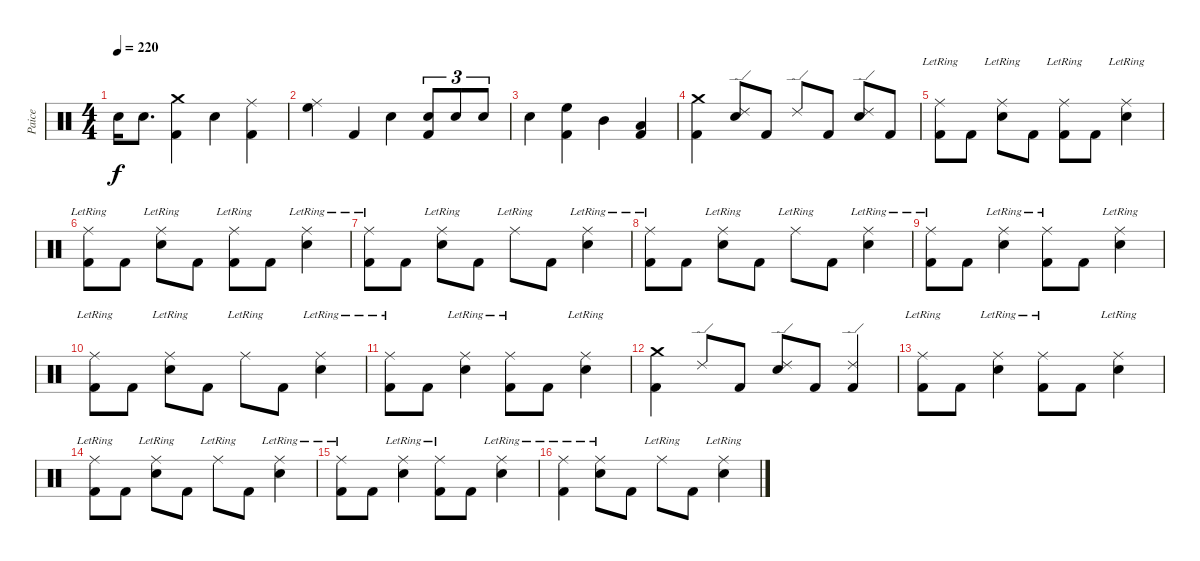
\track ("Paice" "Paice") {instrument percussion}
\staff {score}
\articulation defaults
\ts (4 4)
\tempo 220
\clef neutral
\ks c "Snare (hit) 2".16{dy f} "Snare (hit) 2".8{d}
("Crash medium (hit)" "Kick (hit) 2").4 "Snare (hit) 2".4 ("Ride (middle)" "Kick (hit) 2").4 |
("Ride (middle)" "High Floor Tom (hit)").4 "Kick (hit) 2".4 "Snare (hit) 2".4 ("Snare (hit) 2" "Kick (hit) 2").8{tu (3 2)} "Snare (hit) 2".8{tu (3 2)} "Snare (hit) 2".8{tu (3 2)} |
"Snare (hit) 2".4 ("High Floor Tom (hit)" "Kick (hit) 2").4 "Mid Tom (hit)".4 ("Low Tom (hit)" "Kick (hit) 2").4 |
("Crash medium (hit)" "Kick (hit) 2").4 ("Ride (edge) 2" "Snare (hit) 2").8 "Kick (hit) 2".8 "Ride (edge) 2".8 "Kick (hit) 2".8 ("Ride (edge) 2" "Snare (hit) 2").8 "Kick (hit) 2".8 |
("Ride (middle)"{lr} "Kick (hit) 2").8 "Kick (hit) 2".8 ("Ride (middle)"{lr} "Snare (hit) 2").8 "Kick (hit) 2".8 ("Ride (middle)"{lr} "Kick (hit) 2").8 "Kick (hit) 2".8 ("Ride (middle)"{lr} "Snare (hit) 2").4 |
("Ride (middle)"{lr} "Kick (hit) 2").8 "Kick (hit) 2".8 ("Ride (middle)"{lr} "Snare (hit) 2").8 "Kick (hit) 2".8 ("Ride (middle)"{lr} "Kick (hit) 2").8 "Kick (hit) 2".8 ("Ride (middle)"{lr} "Snare (hit) 2").4 |
("Ride (middle)"{lr} "Kick (hit) 2").8 "Kick (hit) 2".8 ("Ride (middle)"{lr} "Snare (hit) 2").8 "Kick (hit) 2".8 "Ride (middle)"{lr}.8 "Kick (hit) 2".8 ("Ride (middle)"{lr} "Snare (hit) 2").4 |
("Ride (middle)"{lr} "Kick (hit) 2").8 "Kick (hit) 2".8 ("Ride (middle)"{lr} "Snare (hit) 2").8 "Kick (hit) 2".8 "Ride (middle)"{lr}.8 "Kick (hit) 2".8 ("Ride (middle)"{lr} "Snare (hit) 2").4 |
("Ride (middle)"{lr} "Kick (hit) 2").8 "Kick (hit) 2".8 ("Ride (middle)"{lr} "Snare (hit) 2").4 ("Ride (middle)"{lr} "Kick (hit) 2").8 "Kick (hit) 2".8 ("Ride (middle)"{lr} "Snare (hit) 2").4 |
("Ride (middle)"{lr} "Kick (hit) 2").8 "Kick (hit) 2".8 ("Ride (middle)"{lr} "Snare (hit) 2").8 "Kick (hit) 2".8 "Ride (middle)"{lr}.8 "Kick (hit) 2".8 ("Ride (middle)"{lr} "Snare (hit) 2").4 |
("Ride (middle)"{lr} "Kick (hit) 2").8 "Kick (hit) 2".8 ("Ride (middle)"{lr} "Snare (hit) 2").4 ("Ride (middle)"{lr} "Kick (hit) 2").8 "Kick (hit) 2".8 ("Ride (middle)"{lr} "Snare (hit) 2").4 |
("Crash medium (hit)" "Kick (hit) 2").4 "Ride (edge) 2".8 "Kick (hit) 2".8 ("Ride (edge) 2" "Snare (hit) 2").8 "Kick (hit) 2".8 ("Ride (edge) 2" "Kick (hit) 2").4 |
("Ride (middle)"{lr} "Kick (hit) 2").8 "Kick (hit) 2".8 ("Ride (middle)"{lr} "Snare (hit) 2").4 ("Ride (middle)"{lr} "Kick (hit) 2").8 "Kick (hit) 2".8 ("Ride (middle)"{lr} "Snare (hit) 2").4 |
("Ride (middle)"{lr} "Kick (hit) 2").8 "Kick (hit) 2".8 ("Ride (middle)"{lr} "Snare (hit) 2").8 "Kick (hit) 2".8 "Ride (middle)"{lr}.8 "Kick (hit) 2".8 ("Ride (middle)"{lr} "Snare (hit) 2").4 |
("Ride (middle)"{lr} "Kick (hit) 2").8 "Kick (hit) 2".8 ("Ride (middle)"{lr} "Snare (hit) 2").4 ("Ride (middle)"{lr} "Kick (hit) 2").8 "Kick (hit) 2".8 ("Ride (middle)"{lr} "Snare (hit) 2").4 |
("Ride (middle)"{lr} "Kick (hit) 2").4 ("Ride (middle)"{lr} "Snare (hit) 2").8 "Kick (hit) 2".8 "Ride (middle)"{lr}.8 "Kick (hit) 2".8 ("Ride (middle)"{lr} "Snare (hit) 2").4
